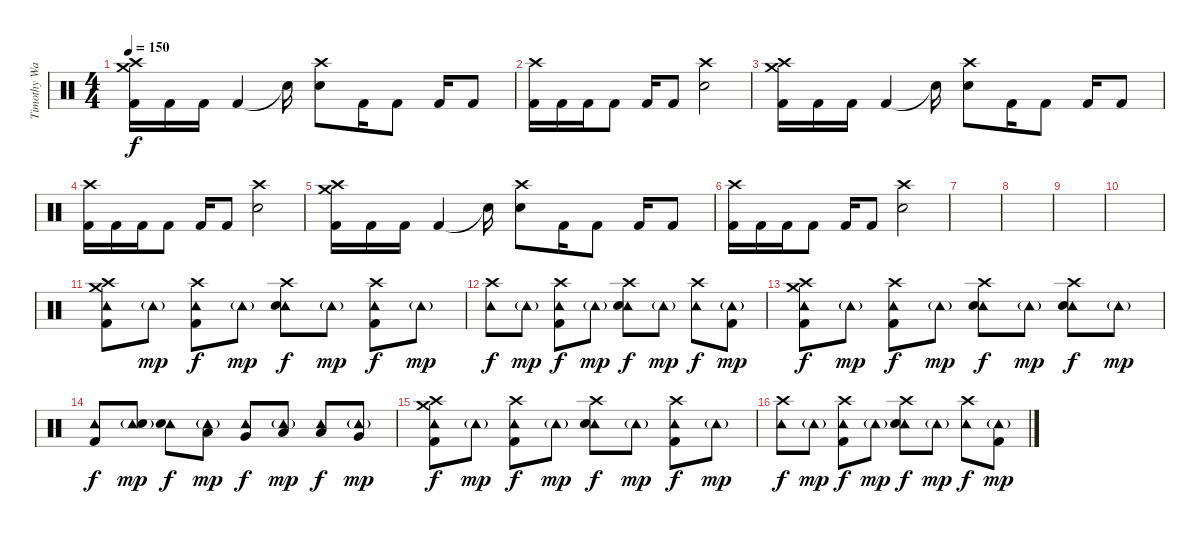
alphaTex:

\track ("Timothy Watts" "Timothy Wa") {instrument percussion}
\staff {score}
\articulation defaults
\ts (4 4)
\tempo 150
\clef neutral
\ks c
("Crash medium (hit)" "Crash high (hit)" "Kick (hit) 2").16{dy f} "Kick (hit) 2".16 "Kick (hit) 2".16 "Kick (hit) 2".4 "Snare (hit)"{t}.16 ("Crash high (hit)" "Electric Snare (hit)").8 "Kick (hit) 2".16 "Kick (hit) 2".8 "Kick (hit) 2".16 "Kick (hit) 2".8 |
("Crash high (hit)" "Kick (hit) 2").16 "Kick (hit) 2".16 "Kick (hit) 2".16 "Kick (hit) 2".8 "Kick (hit) 2".16 "Kick (hit) 2".8 ("Crash high (hit)" "Electric Snare (hit)").2 |
("Crash medium (hit)" "Crash high (hit)" "Kick (hit) 2").16 "Kick (hit) 2".16 "Kick (hit) 2".16 "Kick (hit) 2".4 "Snare (hit)"{t}.16 ("Crash high (hit)" "Electric Snare (hit)").8 "Kick (hit) 2".16 "Kick (hit) 2".8 "Kick (hit) 2".16 "Kick (hit) 2".8 |
("Crash high (hit)" "Kick (hit) 2").16 "Kick (hit) 2".16 "Kick (hit) 2".16 "Kick (hit) 2".8 "Kick (hit) 2".16 "Kick (hit) 2".8 ("Crash high (hit)" "Electric Snare (hit)").2 |
("Crash medium (hit)" "Crash high (hit)" "Kick (hit) 2").16 "Kick (hit) 2".16 "Kick (hit) 2".16 "Kick (hit) 2".4 "Snare (hit)"{t}.16 ("Crash high (hit)" "Electric Snare (hit)").8 "Kick (hit) 2".16 "Kick (hit) 2".8 "Kick (hit) 2".16 "Kick (hit) 2".8 |
("Crash high (hit)" "Kick (hit) 2").16 "Kick (hit) 2".16 "Kick (hit) 2".16 "Kick (hit) 2".8 "Kick (hit) 2".16 "Kick (hit) 2".8 ("Crash high (hit)" "Electric Snare (hit)").2 |
|
|
|
|
("Tambourine (hit)" "Crash medium (hit)" "Crash high (hit)" "Kick (hit) 2").8 "Tambourine (hit)"{g}.8{dy mp} ("Tambourine (hit)" "Crash high (hit)" "Kick (hit) 2").8{dy f} "Tambourine (hit)"{g}.8{dy mp} ("Tambourine (hit)" "Crash high (hit)" "Electric Snare (hit)").8{dy f} "Tambourine (hit)"{g}.8{dy mp} ("Tambourine (hit)" "Crash high (hit)" "Kick (hit) 2").8{dy f} "Tambourine (hit)"{g}.8{dy mp} |
("Tambourine (hit)" "Crash high (hit)").8{dy f} "Tambourine (hit)"{g}.8{dy mp} ("Tambourine (hit)" "Crash high (hit)" "Kick (hit) 2").8{dy f} "Tambourine (hit)"{g}.8{dy mp} ("Tambourine (hit)" "Crash high (hit)" "Electric Snare (hit)").8{dy f} "Tambourine (hit)"{g}.8{dy mp} ("Tambourine (hit)" "Crash high (hit)").8{dy f} ("Tambourine (hit)"{g} "Kick (hit) 2").8{dy mp} |
("Tambourine (hit)" "Crash medium (hit)" "Crash high (hit)" "Kick (hit) 2").8{dy f} "Tambourine (hit)"{g}.8{dy mp} ("Tambourine (hit)" "Crash high (hit)" "Kick (hit) 2").8{dy f} "Tambourine (hit)"{g}.8{dy mp} ("Tambourine (hit)" "Crash high (hit)" "Electric Snare (hit)").8{dy f} "Tambourine (hit)"{g}.8{dy mp} ("Tambourine (hit)" "Crash high (hit)" "Electric Snare (hit)").8{dy f} "Tambourine (hit)"{g}.8{dy mp} |
("Tambourine (hit)" "Kick (hit) 2").8{dy f} ("Tambourine (hit)"{g} "Electric Snare (hit)").8{dy mp} ("Tambourine (hit)" "Electric Snare (hit)").8{dy f} ("Tambourine (hit)"{g} "Low Tom (hit)").8{dy mp} ("Tambourine (hit)" "Very Low Tom (hit)").8{dy f} ("Tambourine (hit)"{g} "Low Floor Tom (hit)").8{dy mp} ("Tambourine (hit)" "Low Tom (hit)").8{dy f} ("Tambourine (hit)"{g} "Very Low Tom (hit)").8{dy mp} |
("Tambourine (hit)" "Crash medium (hit)" "Crash high (hit)" "Kick (hit) 2").8{dy f} "Tambourine (hit)"{g}.8{dy mp} ("Tambourine (hit)" "Crash high (hit)" "Kick (hit) 2").8{dy f} "Tambourine (hit)"{g}.8{dy mp} ("Tambourine (hit)" "Crash high (hit)" "Electric Snare (hit)").8{dy f} "Tambourine (hit)"{g}.8{dy mp} ("Tambourine (hit)" "Crash high (hit)" "Kick (hit) 2").8{dy f} "Tambourine (hit)"{g}.8{dy mp} |
("Tambourine (hit)" "Crash high (hit)").8{dy f} "Tambourine (hit)"{g}.8{dy mp} ("Tambourine (hit)" "Crash high (hit)" "Kick (hit) 2").8{dy f} "Tambourine (hit)"{g}.8{dy mp} ("Tambourine (hit)" "Crash high (hit)" "Electric Snare (hit)").8{dy f} "Tambourine (hit)"{g}.8{dy mp} ("Tambourine (hit)" "Crash high (hit)").8{dy f} ("Tambourine (hit)"{g} "Kick (hit) 2").8{dy mp}
